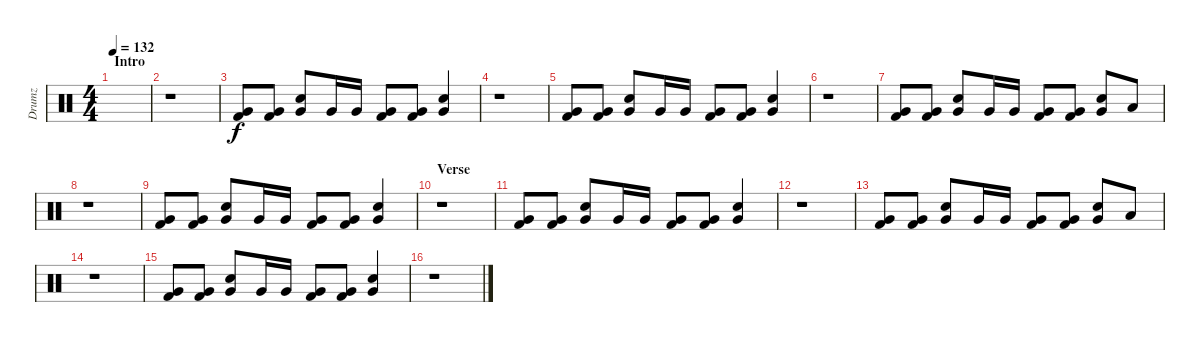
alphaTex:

\track ("Drumz" "Drumz") {instrument percussion}
\staff {score}
\articulation defaults
\ts (4 4)
\section ("" "Intro")
\tempo 132
\clef neutral
\ks c
|
r.1 |
("Very Low Tom (hit)" "Kick (hit) 2").8 ("Very Low Tom (hit)" "Kick (hit) 2").8 ("Snare (hit) 2" "Very Low Tom (hit)").8 "Very Low Tom (hit)".16 "Very Low Tom (hit)".16 ("Very Low Tom (hit)" "Kick (hit) 2").8 ("Very Low Tom (hit)" "Kick (hit) 2").8 ("Snare (hit) 2" "Very Low Tom (hit)").4 |
r.1 |
("Very Low Tom (hit)" "Kick (hit) 2").8 ("Very Low Tom (hit)" "Kick (hit) 2").8 ("Snare (hit) 2" "Very Low Tom (hit)").8 "Very Low Tom (hit)".16 "Very Low Tom (hit)".16 ("Very Low Tom (hit)" "Kick (hit) 2").8 ("Very Low Tom (hit)" "Kick (hit) 2").8 ("Snare (hit) 2" "Very Low Tom (hit)").4 |
r.1 |
("Very Low Tom (hit)" "Kick (hit) 2").8 ("Very Low Tom (hit)" "Kick (hit) 2").8 ("Snare (hit) 2" "Very Low Tom (hit)").8 "Very Low Tom (hit)".16 "Very Low Tom (hit)".16 ("Very Low Tom (hit)" "Kick (hit) 2").8 ("Very Low Tom (hit)" "Kick (hit) 2").8 ("Snare (hit) 2" "Very Low Tom (hit)").8 "Low Tom (hit)".8 |
r.1 |
("Very Low Tom (hit)" "Kick (hit) 2").8 ("Very Low Tom (hit)" "Kick (hit) 2").8 ("Snare (hit) 2" "Very Low Tom (hit)").8 "Very Low Tom (hit)".16 "Very Low Tom (hit)".16 ("Very Low Tom (hit)" "Kick (hit) 2").8 ("Very Low Tom (hit)" "Kick (hit) 2").8 ("Snare (hit) 2" "Very Low Tom (hit)").4 |
\section ("" "Verse")
r.1 |
("Very Low Tom (hit)" "Kick (hit) 2").8 ("Very Low Tom (hit)" "Kick (hit) 2").8 ("Snare (hit) 2" "Very Low Tom (hit)").8 "Very Low Tom (hit)".16 "Very Low Tom (hit)".16 ("Very Low Tom (hit)" "Kick (hit) 2").8 ("Very Low Tom (hit)" "Kick (hit) 2").8 ("Snare (hit) 2" "Very Low Tom (hit)").4 |
r.1 |
("Very Low Tom (hit)" "Kick (hit) 2").8 ("Very Low Tom (hit)" "Kick (hit) 2").8 ("Snare (hit) 2" "Very Low Tom (hit)").8 "Very Low Tom (hit)".16 "Very Low Tom (hit)".16 ("Very Low Tom (hit)" "Kick (hit) 2").8 ("Very Low Tom (hit)" "Kick (hit) 2").8 ("Snare (hit) 2" "Very Low Tom (hit)").8 "Low Tom (hit)".8 |
r.1 |
("Very Low Tom (hit)" "Kick (hit) 2").8 ("Very Low Tom (hit)" "Kick (hit) 2").8 ("Snare (hit) 2" "Very Low Tom (hit)").8 "Very Low Tom (hit)".16 "Very Low Tom (hit)".16 ("Very Low Tom (hit)" "Kick (hit) 2").8 ("Very Low Tom (hit)" "Kick (hit) 2").8 ("Snare (hit) 2" "Very Low Tom (hit)").4 |
r.1
